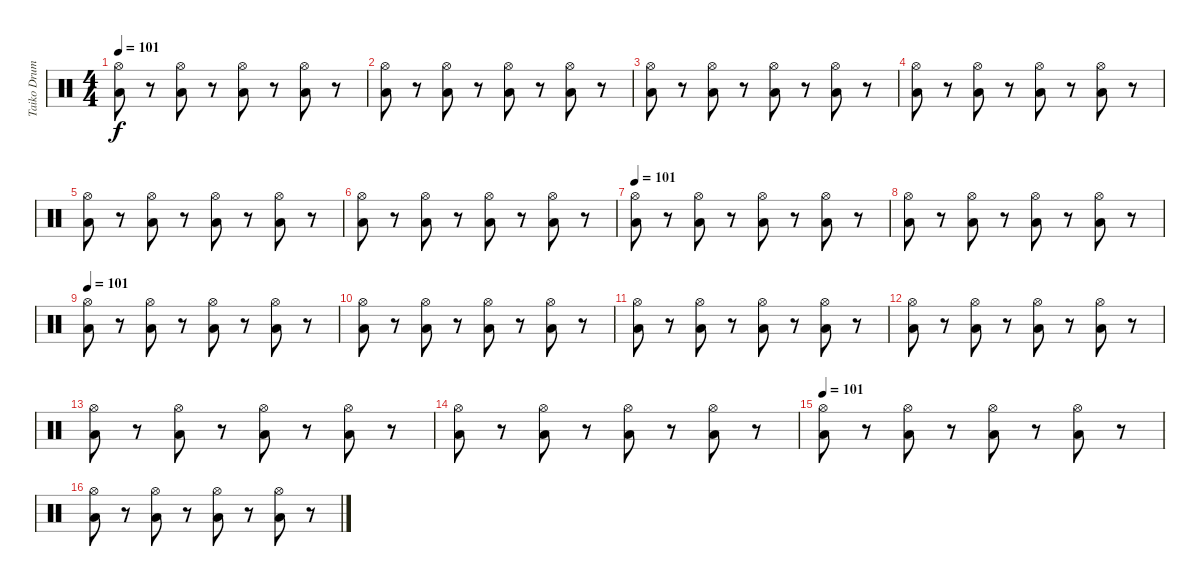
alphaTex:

\track ("Taiko Drum" "Taiko Drum") {instrument percussion}
\staff {score}
\articulation defaults
\ts (4 4)
\tempo 101
\clef neutral
\ks c
("Hi-Hat (open)" "Low Floor Tom (hit)").8{dy f} r.8 ("Low Floor Tom (hit)" "Hi-Hat (open)").8 r.8 ("Low Floor Tom (hit)" "Hi-Hat (open)").8 r.8 ("Low Floor Tom (hit)" "Hi-Hat (open)").8 r.8 |
("Hi-Hat (open)" "Low Floor Tom (hit)").8 r.8 ("Hi-Hat (open)" "Low Floor Tom (hit)").8 r.8 ("Hi-Hat (open)" "Low Floor Tom (hit)").8 r.8 ("Hi-Hat (open)" "Low Floor Tom (hit)").8 r.8 |
("Hi-Hat (open)" "Low Floor Tom (hit)").8 r.8 ("Low Floor Tom (hit)" "Hi-Hat (open)").8 r.8 ("Low Floor Tom (hit)" "Hi-Hat (open)").8 r.8 ("Low Floor Tom (hit)" "Hi-Hat (open)").8 r.8 |
("Hi-Hat (open)" "Low Floor Tom (hit)").8 r.8 ("Hi-Hat (open)" "Low Floor Tom (hit)").8 r.8 ("Hi-Hat (open)" "Low Floor Tom (hit)").8 r.8 ("Hi-Hat (open)" "Low Floor Tom (hit)").8 r.8 |
("Hi-Hat (open)" "Low Floor Tom (hit)").8 r.8 ("Low Floor Tom (hit)" "Hi-Hat (open)").8 r.8 ("Low Floor Tom (hit)" "Hi-Hat (open)").8 r.8 ("Low Floor Tom (hit)" "Hi-Hat (open)").8 r.8 |
("Hi-Hat (open)" "Low Floor Tom (hit)").8 r.8 ("Hi-Hat (open)" "Low Floor Tom (hit)").8 r.8 ("Hi-Hat (open)" "Low Floor Tom (hit)").8 r.8 ("Hi-Hat (open)" "Low Floor Tom (hit)").8 r.8 |
\tempo 101
("Hi-Hat (open)" "Low Floor Tom (hit)").8 r.8 ("Low Floor Tom (hit)" "Hi-Hat (open)").8 r.8 ("Low Floor Tom (hit)" "Hi-Hat (open)").8 r.8 ("Low Floor Tom (hit)" "Hi-Hat (open)").8 r.8 |
("Hi-Hat (open)" "Low Floor Tom (hit)").8 r.8 ("Hi-Hat (open)" "Low Floor Tom (hit)").8 r.8 ("Hi-Hat (open)" "Low Floor Tom (hit)").8 r.8 ("Hi-Hat (open)" "Low Floor Tom (hit)").8 r.8 |
\tempo 101
("Hi-Hat (open)" "Low Floor Tom (hit)").8 r.8 ("Low Floor Tom (hit)" "Hi-Hat (open)").8 r.8 ("Low Floor Tom (hit)" "Hi-Hat (open)").8 r.8 ("Low Floor Tom (hit)" "Hi-Hat (open)").8 r.8 |
("Hi-Hat (open)" "Low Floor Tom (hit)").8 r.8 ("Hi-Hat (open)" "Low Floor Tom (hit)").8 r.8 ("Hi-Hat (open)" "Low Floor Tom (hit)").8 r.8 ("Hi-Hat (open)" "Low Floor Tom (hit)").8 r.8 |
("Hi-Hat (open)" "Low Floor Tom (hit)").8 r.8 ("Low Floor Tom (hit)" "Hi-Hat (open)").8 r.8 ("Low Floor Tom (hit)" "Hi-Hat (open)").8 r.8 ("Low Floor Tom (hit)" "Hi-Hat (open)").8 r.8 |
("Hi-Hat (open)" "Low Floor Tom (hit)").8 r.8 ("Hi-Hat (open)" "Low Floor Tom (hit)").8 r.8 ("Hi-Hat (open)" "Low Floor Tom (hit)").8 r.8 ("Hi-Hat (open)" "Low Floor Tom (hit)").8 r.8 |
("Hi-Hat (open)" "Low Floor Tom (hit)").8 r.8 ("Low Floor Tom (hit)" "Hi-Hat (open)").8 r.8 ("Low Floor Tom (hit)" "Hi-Hat (open)").8 r.8 ("Low Floor Tom (hit)" "Hi-Hat (open)").8 r.8 |
("Hi-Hat (open)" "Low Floor Tom (hit)").8 r.8 ("Hi-Hat (open)" "Low Floor Tom (hit)").8 r.8 ("Hi-Hat (open)" "Low Floor Tom (hit)").8 r.8 ("Hi-Hat (open)" "Low Floor Tom (hit)").8 r.8 |
\tempo 101
("Hi-Hat (open)" "Low Floor Tom (hit)").8 r.8 ("Low Floor Tom (hit)" "Hi-Hat (open)").8 r.8 ("Low Floor Tom (hit)" "Hi-Hat (open)").8 r.8 ("Low Floor Tom (hit)" "Hi-Hat (open)").8 r.8 |
("Hi-Hat (open)" "Low Floor Tom (hit)").8 r.8 ("Hi-Hat (open)" "Low Floor Tom (hit)").8 r.8 ("Hi-Hat (open)" "Low Floor Tom (hit)").8 r.8 ("Hi-Hat (open)" "Low Floor Tom (hit)").8 r.8
